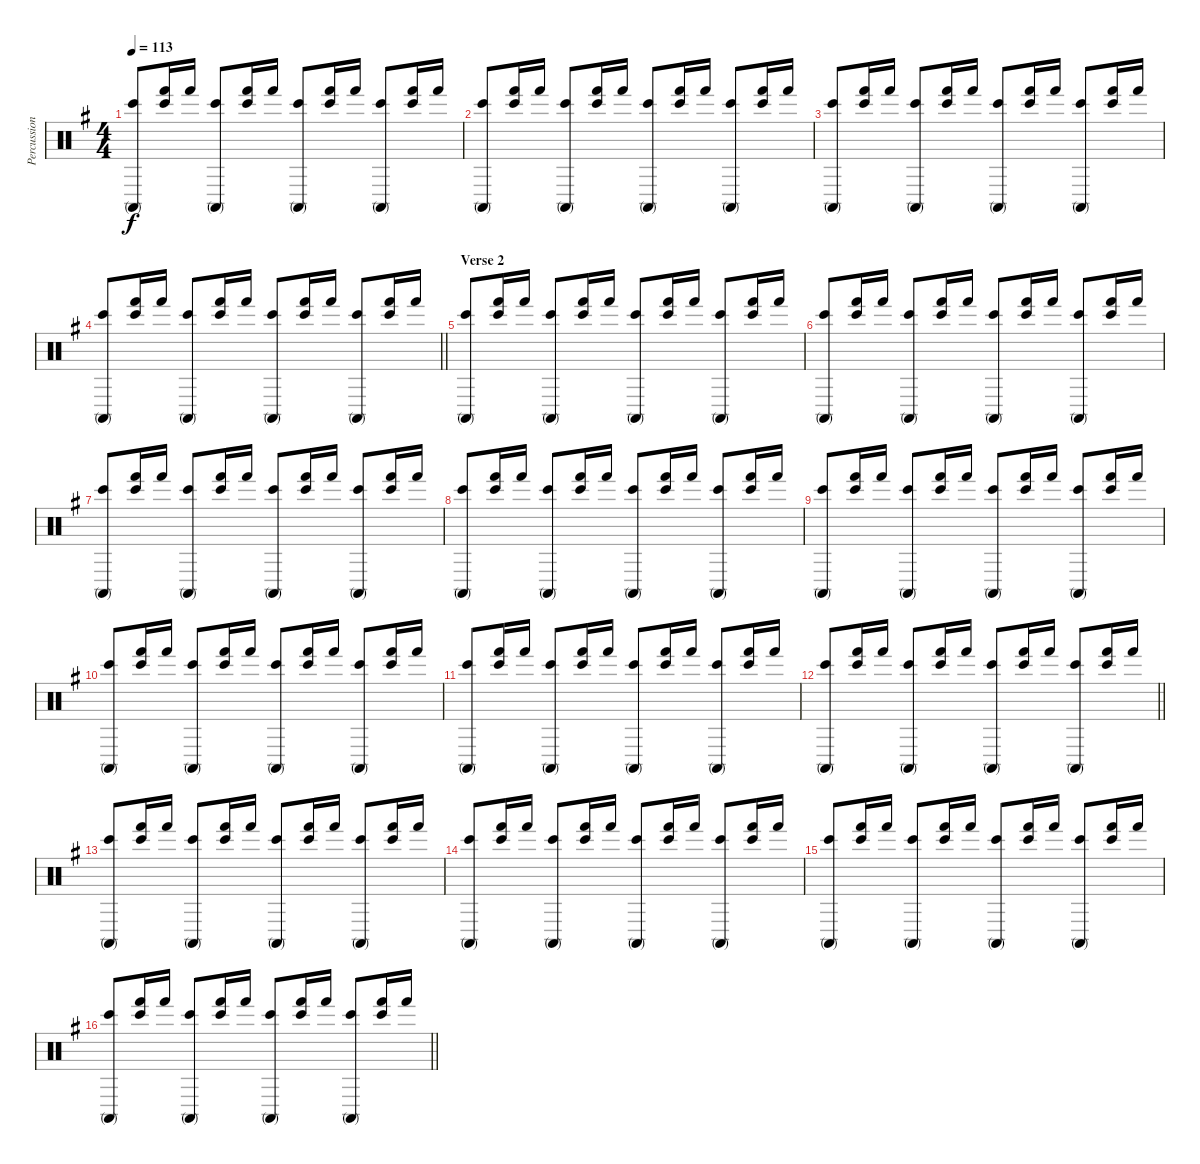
\track ("Percussion" "Percussion") {instrument percussion}
\staff {score}
\articulation defaults
\ts (4 4)
\tempo 113
\clef neutral
\ks g
("Bongo High (hit)" "Conga high (mute)").8{dy f} ("Bongo High (hit)" "Hand (hit)").16 "Hand (hit)".16 ("Bongo High (hit)" "Conga high (mute)").8 ("Bongo High (hit)" "Hand (hit)").16 "Hand (hit)".16 ("Bongo High (hit)" "Conga high (mute)").8 ("Bongo High (hit)" "Hand (hit)").16 "Hand (hit)".16 ("Bongo High (hit)" "Conga high (mute)").8 ("Bongo High (hit)" "Hand (hit)").16 "Hand (hit)".16 |
("Bongo High (hit)" "Conga high (mute)").8 ("Bongo High (hit)" "Hand (hit)").16 "Hand (hit)".16 ("Bongo High (hit)" "Conga high (mute)").8 ("Bongo High (hit)" "Hand (hit)").16 "Hand (hit)".16 ("Bongo High (hit)" "Conga high (mute)").8 ("Bongo High (hit)" "Hand (hit)").16 "Hand (hit)".16 ("Bongo High (hit)" "Conga high (mute)").8 ("Bongo High (hit)" "Hand (hit)").16 "Hand (hit)".16 |
("Bongo High (hit)" "Conga high (mute)").8 ("Bongo High (hit)" "Hand (hit)").16 "Hand (hit)".16 ("Bongo High (hit)" "Conga high (mute)").8 ("Bongo High (hit)" "Hand (hit)").16 "Hand (hit)".16 ("Bongo High (hit)" "Conga high (mute)").8 ("Bongo High (hit)" "Hand (hit)").16 "Hand (hit)".16 ("Bongo High (hit)" "Conga high (mute)").8 ("Bongo High (hit)" "Hand (hit)").16 "Hand (hit)".16 |
\barLineRight lightlight
("Bongo High (hit)" "Conga high (mute)").8 ("Bongo High (hit)" "Hand (hit)").16 "Hand (hit)".16 ("Bongo High (hit)" "Conga high (mute)").8 ("Bongo High (hit)" "Hand (hit)").16 "Hand (hit)".16 ("Bongo High (hit)" "Conga high (mute)").8 ("Bongo High (hit)" "Hand (hit)").16 "Hand (hit)".16 ("Bongo High (hit)" "Conga high (mute)").8 ("Bongo High (hit)" "Hand (hit)").16 "Hand (hit)".16 |
\section ("" "Verse 2")
("Bongo High (hit)" "Conga high (mute)").8 ("Bongo High (hit)" "Hand (hit)").16 "Hand (hit)".16 ("Bongo High (hit)" "Conga high (mute)").8 ("Bongo High (hit)" "Hand (hit)").16 "Hand (hit)".16 ("Bongo High (hit)" "Conga high (mute)").8 ("Bongo High (hit)" "Hand (hit)").16 "Hand (hit)".16 ("Bongo High (hit)" "Conga high (mute)").8 ("Bongo High (hit)" "Hand (hit)").16 "Hand (hit)".16 |
("Bongo High (hit)" "Conga high (mute)").8 ("Bongo High (hit)" "Hand (hit)").16 "Hand (hit)".16 ("Bongo High (hit)" "Conga high (mute)").8 ("Bongo High (hit)" "Hand (hit)").16 "Hand (hit)".16 ("Bongo High (hit)" "Conga high (mute)").8 ("Bongo High (hit)" "Hand (hit)").16 "Hand (hit)".16 ("Bongo High (hit)" "Conga high (mute)").8 ("Bongo High (hit)" "Hand (hit)").16 "Hand (hit)".16 |
("Bongo High (hit)" "Conga high (mute)").8 ("Bongo High (hit)" "Hand (hit)").16 "Hand (hit)".16 ("Bongo High (hit)" "Conga high (mute)").8 ("Bongo High (hit)" "Hand (hit)").16 "Hand (hit)".16 ("Bongo High (hit)" "Conga high (mute)").8 ("Bongo High (hit)" "Hand (hit)").16 "Hand (hit)".16 ("Bongo High (hit)" "Conga high (mute)").8 ("Bongo High (hit)" "Hand (hit)").16 "Hand (hit)".16 |
("Bongo High (hit)" "Conga high (mute)").8 ("Bongo High (hit)" "Hand (hit)").16 "Hand (hit)".16 ("Bongo High (hit)" "Conga high (mute)").8 ("Bongo High (hit)" "Hand (hit)").16 "Hand (hit)".16 ("Bongo High (hit)" "Conga high (mute)").8 ("Bongo High (hit)" "Hand (hit)").16 "Hand (hit)".16 ("Bongo High (hit)" "Conga high (mute)").8 ("Bongo High (hit)" "Hand (hit)").16 "Hand (hit)".16 |
("Bongo High (hit)" "Conga high (mute)").8 ("Bongo High (hit)" "Hand (hit)").16 "Hand (hit)".16 ("Bongo High (hit)" "Conga high (mute)").8 ("Bongo High (hit)" "Hand (hit)").16 "Hand (hit)".16 ("Bongo High (hit)" "Conga high (mute)").8 ("Bongo High (hit)" "Hand (hit)").16 "Hand (hit)".16 ("Bongo High (hit)" "Conga high (mute)").8 ("Bongo High (hit)" "Hand (hit)").16 "Hand (hit)".16 |
("Bongo High (hit)" "Conga high (mute)").8 ("Bongo High (hit)" "Hand (hit)").16 "Hand (hit)".16 ("Bongo High (hit)" "Conga high (mute)").8 ("Bongo High (hit)" "Hand (hit)").16 "Hand (hit)".16 ("Bongo High (hit)" "Conga high (mute)").8 ("Bongo High (hit)" "Hand (hit)").16 "Hand (hit)".16 ("Bongo High (hit)" "Conga high (mute)").8 ("Bongo High (hit)" "Hand (hit)").16 "Hand (hit)".16 |
("Bongo High (hit)" "Conga high (mute)").8 ("Bongo High (hit)" "Hand (hit)").16 "Hand (hit)".16 ("Bongo High (hit)" "Conga high (mute)").8 ("Bongo High (hit)" "Hand (hit)").16 "Hand (hit)".16 ("Bongo High (hit)" "Conga high (mute)").8 ("Bongo High (hit)" "Hand (hit)").16 "Hand (hit)".16 ("Bongo High (hit)" "Conga high (mute)").8 ("Bongo High (hit)" "Hand (hit)").16 "Hand (hit)".16 |
\barLineRight lightlight
("Bongo High (hit)" "Conga high (mute)").8 ("Bongo High (hit)" "Hand (hit)").16 "Hand (hit)".16 ("Bongo High (hit)" "Conga high (mute)").8 ("Bongo High (hit)" "Hand (hit)").16 "Hand (hit)".16 ("Bongo High (hit)" "Conga high (mute)").8 ("Bongo High (hit)" "Hand (hit)").16 "Hand (hit)".16 ("Bongo High (hit)" "Conga high (mute)").8 ("Bongo High (hit)" "Hand (hit)").16 "Hand (hit)".16 |
("Bongo High (hit)" "Conga high (mute)").8 ("Bongo High (hit)" "Hand (hit)").16 "Hand (hit)".16 ("Bongo High (hit)" "Conga high (mute)").8 ("Bongo High (hit)" "Hand (hit)").16 "Hand (hit)".16 ("Bongo High (hit)" "Conga high (mute)").8 ("Bongo High (hit)" "Hand (hit)").16 "Hand (hit)".16 ("Bongo High (hit)" "Conga high (mute)").8 ("Bongo High (hit)" "Hand (hit)").16 "Hand (hit)".16 |
("Bongo High (hit)" "Conga high (mute)").8 ("Bongo High (hit)" "Hand (hit)").16 "Hand (hit)".16 ("Bongo High (hit)" "Conga high (mute)").8 ("Bongo High (hit)" "Hand (hit)").16 "Hand (hit)".16 ("Bongo High (hit)" "Conga high (mute)").8 ("Bongo High (hit)" "Hand (hit)").16 "Hand (hit)".16 ("Bongo High (hit)" "Conga high (mute)").8 ("Bongo High (hit)" "Hand (hit)").16 "Hand (hit)".16 |
("Bongo High (hit)" "Conga high (mute)").8 ("Bongo High (hit)" "Hand (hit)").16 "Hand (hit)".16 ("Bongo High (hit)" "Conga high (mute)").8 ("Bongo High (hit)" "Hand (hit)").16 "Hand (hit)".16 ("Bongo High (hit)" "Conga high (mute)").8 ("Bongo High (hit)" "Hand (hit)").16 "Hand (hit)".16 ("Bongo High (hit)" "Conga high (mute)").8 ("Bongo High (hit)" "Hand (hit)").16 "Hand (hit)".16 |
\barLineRight lightlight
("Bongo High (hit)" "Conga high (mute)").8 ("Bongo High (hit)" "Hand (hit)").16 "Hand (hit)".16 ("Bongo High (hit)" "Conga high (mute)").8 ("Bongo High (hit)" "Hand (hit)").16 "Hand (hit)".16 ("Bongo High (hit)" "Conga high (mute)").8 ("Bongo High (hit)" "Hand (hit)").16 "Hand (hit)".16 ("Bongo High (hit)" "Conga high (mute)").8 ("Bongo High (hit)" "Hand (hit)").16 "Hand (hit)".16
